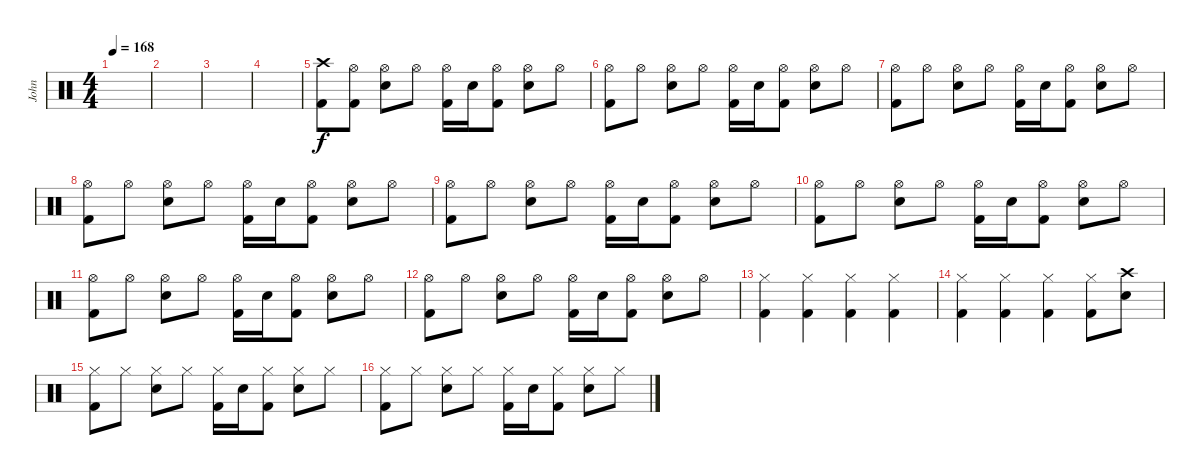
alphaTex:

\track ("John" "John") {instrument percussion}
\staff {score}
\articulation defaults
\ts (4 4)
\tempo 168
\clef neutral
\ks c
|
|
|
|
("Crash high (hit)" "Kick (hit) 2").8 ("Hi-Hat (open)" "Kick (hit) 2").8 ("Hi-Hat (open)" "Electric Snare (hit)").8 "Hi-Hat (open)".8 ("Hi-Hat (open)" "Kick (hit) 2").16 "Electric Snare (hit)".16 ("Hi-Hat (open)" "Kick (hit) 2").8 ("Hi-Hat (open)" "Electric Snare (hit)").8 "Hi-Hat (open)".8 |
("Hi-Hat (open)" "Kick (hit) 2").8 "Hi-Hat (open)".8 ("Hi-Hat (open)" "Electric Snare (hit)").8 "Hi-Hat (open)".8 ("Hi-Hat (open)" "Kick (hit) 2").16 "Electric Snare (hit)".16 ("Hi-Hat (open)" "Kick (hit) 2").8 ("Hi-Hat (open)" "Electric Snare (hit)").8 "Hi-Hat (open)".8 |
("Hi-Hat (open)" "Kick (hit) 2").8 "Hi-Hat (open)".8 ("Hi-Hat (open)" "Electric Snare (hit)").8 "Hi-Hat (open)".8 ("Hi-Hat (open)" "Kick (hit) 2").16 "Electric Snare (hit)".16 ("Hi-Hat (open)" "Kick (hit) 2").8 ("Hi-Hat (open)" "Electric Snare (hit)").8 "Hi-Hat (open)".8 |
("Hi-Hat (open)" "Kick (hit) 2").8 "Hi-Hat (open)".8 ("Hi-Hat (open)" "Electric Snare (hit)").8 "Hi-Hat (open)".8 ("Hi-Hat (open)" "Kick (hit) 2").16 "Electric Snare (hit)".16 ("Hi-Hat (open)" "Kick (hit) 2").8 ("Hi-Hat (open)" "Electric Snare (hit)").8 "Hi-Hat (open)".8 |
("Hi-Hat (open)" "Kick (hit) 2").8 "Hi-Hat (open)".8 ("Hi-Hat (open)" "Electric Snare (hit)").8 "Hi-Hat (open)".8 ("Hi-Hat (open)" "Kick (hit) 2").16 "Electric Snare (hit)".16 ("Hi-Hat (open)" "Kick (hit) 2").8 ("Hi-Hat (open)" "Electric Snare (hit)").8 "Hi-Hat (open)".8 |
("Hi-Hat (open)" "Kick (hit) 2").8 "Hi-Hat (open)".8 ("Hi-Hat (open)" "Electric Snare (hit)").8 "Hi-Hat (open)".8 ("Hi-Hat (open)" "Kick (hit) 2").16 "Electric Snare (hit)".16 ("Hi-Hat (open)" "Kick (hit) 2").8 ("Hi-Hat (open)" "Electric Snare (hit)").8 "Hi-Hat (open)".8 |
("Hi-Hat (open)" "Kick (hit) 2").8 "Hi-Hat (open)".8 ("Hi-Hat (open)" "Electric Snare (hit)").8 "Hi-Hat (open)".8 ("Hi-Hat (open)" "Kick (hit) 2").16 "Electric Snare (hit)".16 ("Hi-Hat (open)" "Kick (hit) 2").8 ("Hi-Hat (open)" "Electric Snare (hit)").8 "Hi-Hat (open)".8 |
("Hi-Hat (open)" "Kick (hit) 2").8 "Hi-Hat (open)".8 ("Hi-Hat (open)" "Electric Snare (hit)").8 "Hi-Hat (open)".8 ("Hi-Hat (open)" "Kick (hit) 2").16 "Electric Snare (hit)".16 ("Hi-Hat (open)" "Kick (hit) 2").8 ("Hi-Hat (open)" "Electric Snare (hit)").8 "Hi-Hat (open)".8 |
("Hi-Hat (closed)" "Kick (hit) 2").4 ("Hi-Hat (closed)" "Kick (hit) 2").4 ("Hi-Hat (closed)" "Kick (hit) 2").4 ("Hi-Hat (closed)" "Kick (hit) 2").4 |
("Hi-Hat (closed)" "Kick (hit) 2").4 ("Hi-Hat (closed)" "Kick (hit) 2").4 ("Hi-Hat (closed)" "Kick (hit) 2").4 ("Hi-Hat (closed)" "Kick (hit) 2").8 ("Crash high (hit)" "Electric Snare (hit)").8 |
("Hi-Hat (closed)" "Kick (hit) 2").8 "Hi-Hat (closed)".8 ("Hi-Hat (closed)" "Electric Snare (hit)").8 "Hi-Hat (closed)".8 ("Hi-Hat (closed)" "Kick (hit) 2").16 "Electric Snare (hit)".16 ("Hi-Hat (closed)" "Kick (hit) 2").8 ("Hi-Hat (closed)" "Electric Snare (hit)").8 "Hi-Hat (closed)".8 |
("Hi-Hat (closed)" "Kick (hit) 2").8 "Hi-Hat (closed)".8 ("Hi-Hat (closed)" "Electric Snare (hit)").8 "Hi-Hat (closed)".8 ("Hi-Hat (closed)" "Kick (hit) 2").16 "Electric Snare (hit)".16 ("Hi-Hat (closed)" "Kick (hit) 2").8 ("Hi-Hat (closed)" "Electric Snare (hit)").8 "Hi-Hat (closed)".8
